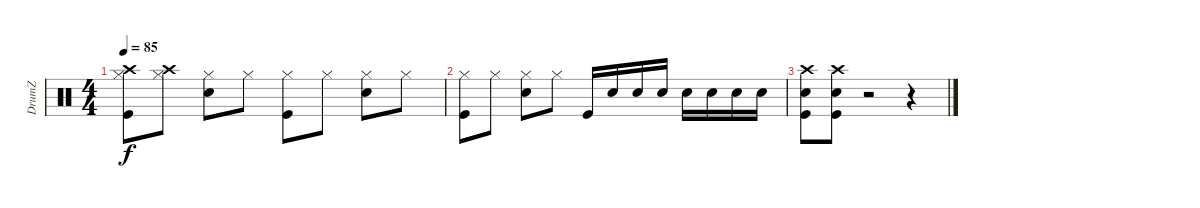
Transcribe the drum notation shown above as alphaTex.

\track ("DrumZ" "DrumZ") {instrument percussion}
\staff {score}
\articulation defaults
\ts (4 4)
\tempo 85
\clef neutral
\ks c
("Hi-Hat (closed)" "Crash high (hit)" "Kick (hit)").8{dy f} ("Hi-Hat (closed)" "Crash high (hit)").8 ("Hi-Hat (closed)" "Electric Snare (hit)").8 "Hi-Hat (closed)".8 ("Hi-Hat (closed)" "Kick (hit)").8 "Hi-Hat (closed)".8 ("Hi-Hat (closed)" "Electric Snare (hit)").8 "Hi-Hat (closed)".8 |
("Hi-Hat (closed)" "Kick (hit)").8 "Hi-Hat (closed)".8 ("Hi-Hat (closed)" "Electric Snare (hit)").8 "Hi-Hat (closed)".8 "Kick (hit)".16 "Electric Snare (hit)".16 "Electric Snare (hit)".16 "Electric Snare (hit)".16 "Electric Snare (hit)".16 "Electric Snare (hit)".16 "Electric Snare (hit)".16 "Electric Snare (hit)".16 |
("Crash high (hit)" "Kick (hit)" "Electric Snare (hit)").8 ("Crash high (hit)" "Kick (hit)" "Electric Snare (hit)").8 r.2 r.4
